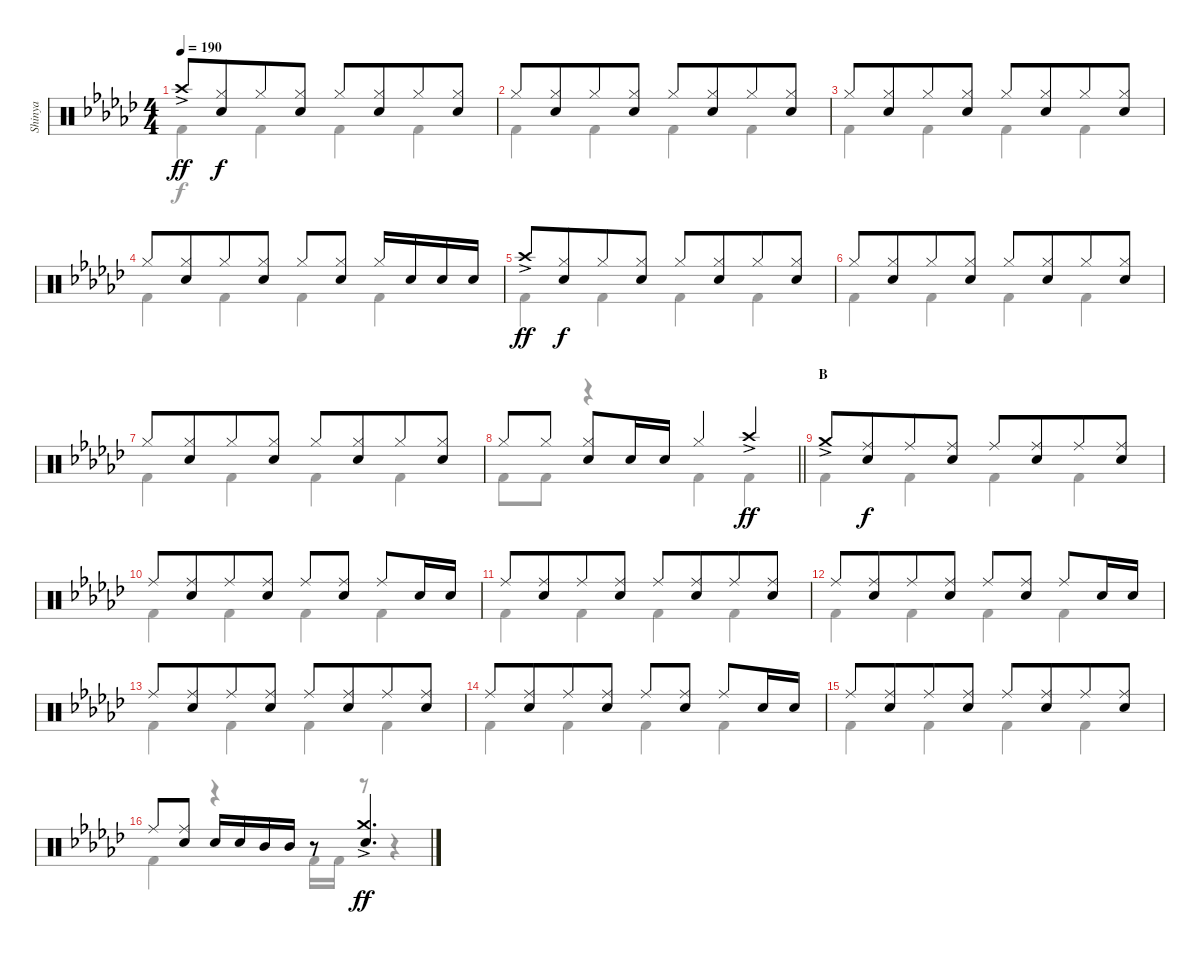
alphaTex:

\track ("Shinya" "Shinya") {instrument percussion}
\staff {score}
\articulation defaults
\voice
\ts (4 4)
\tempo 190
\clef neutral
\ks ebminor "Crash high (hit)"{ac}.8{dy ff}
("Hi-Hat (closed)" "Snare (hit) 2").8{dy f beam merge} "Hi-Hat (closed)".8 ("Hi-Hat (closed)" "Snare (hit) 2").8 "Hi-Hat (closed)".8 ("Hi-Hat (closed)" "Snare (hit) 2").8{beam merge} "Hi-Hat (closed)".8 ("Hi-Hat (closed)" "Snare (hit) 2").8 |
"Hi-Hat (closed)".8 ("Hi-Hat (closed)" "Snare (hit) 2").8{beam merge} "Hi-Hat (closed)".8 ("Hi-Hat (closed)" "Snare (hit) 2").8 "Hi-Hat (closed)".8 ("Hi-Hat (closed)" "Snare (hit) 2").8{beam merge} "Hi-Hat (closed)".8 ("Hi-Hat (closed)" "Snare (hit) 2").8 |
"Hi-Hat (closed)".8 ("Hi-Hat (closed)" "Snare (hit) 2").8{beam merge} "Hi-Hat (closed)".8 ("Hi-Hat (closed)" "Snare (hit) 2").8 "Hi-Hat (closed)".8 ("Hi-Hat (closed)" "Snare (hit) 2").8{beam merge} "Hi-Hat (closed)".8 ("Hi-Hat (closed)" "Snare (hit) 2").8 |
"Hi-Hat (closed)".8 ("Hi-Hat (closed)" "Snare (hit) 2").8{beam merge} "Hi-Hat (closed)".8 ("Hi-Hat (closed)" "Snare (hit) 2").8 "Hi-Hat (closed)".8 ("Hi-Hat (closed)" "Snare (hit) 2").8 "Hi-Hat (closed)".16 "Snare (hit) 2".16 "Snare (hit) 2".16 "Snare (hit) 2".16 |
"Crash high (hit)"{ac}.8{dy ff} ("Hi-Hat (closed)" "Snare (hit) 2").8{dy f beam merge} "Hi-Hat (closed)".8 ("Hi-Hat (closed)" "Snare (hit) 2").8 "Hi-Hat (closed)".8 ("Hi-Hat (closed)" "Snare (hit) 2").8{beam merge} "Hi-Hat (closed)".8 ("Hi-Hat (closed)" "Snare (hit) 2").8 |
"Hi-Hat (closed)".8 ("Hi-Hat (closed)" "Snare (hit) 2").8{beam merge} "Hi-Hat (closed)".8 ("Hi-Hat (closed)" "Snare (hit) 2").8 "Hi-Hat (closed)".8 ("Hi-Hat (closed)" "Snare (hit) 2").8{beam merge} "Hi-Hat (closed)".8 ("Hi-Hat (closed)" "Snare (hit) 2").8 |
"Hi-Hat (closed)".8 ("Hi-Hat (closed)" "Snare (hit) 2").8{beam merge} "Hi-Hat (closed)".8 ("Hi-Hat (closed)" "Snare (hit) 2").8 "Hi-Hat (closed)".8 ("Hi-Hat (closed)" "Snare (hit) 2").8{beam merge} "Hi-Hat (closed)".8 ("Hi-Hat (closed)" "Snare (hit) 2").8 |
\barLineRight lightlight "Hi-Hat (closed)".8 "Hi-Hat (closed)".8
("Hi-Hat (closed)" "Snare (hit) 2").8 "Snare (hit) 2".16 "Snare (hit) 2".16 "Hi-Hat (closed)".4 "Crash high (hit)"{ac}.4{dy ff} |
\section ("" "B")
"Crash medium (hit)"{ac}.8 ("Ride (middle)" "Snare (hit) 2").8{dy f beam merge} "Ride (middle)".8 ("Ride (middle)" "Snare (hit) 2").8 "Ride (middle)".8 ("Ride (middle)" "Snare (hit) 2").8{beam merge} "Ride (middle)".8 ("Ride (middle)" "Snare (hit) 2").8 |
"Ride (middle)".8 ("Ride (middle)" "Snare (hit) 2").8{beam merge} "Ride (middle)".8 ("Ride (middle)" "Snare (hit) 2").8 "Ride (middle)".8 ("Ride (middle)" "Snare (hit) 2").8{beam split} "Ride (middle)".8 "Snare (hit) 2".16 "Snare (hit) 2".16 |
"Ride (middle)".8 ("Ride (middle)" "Snare (hit) 2").8{beam merge} "Ride (middle)".8 ("Ride (middle)" "Snare (hit) 2").8 "Ride (middle)".8 ("Ride (middle)" "Snare (hit) 2").8{beam merge} "Ride (middle)".8 ("Ride (middle)" "Snare (hit) 2").8 |
"Ride (middle)".8 ("Ride (middle)" "Snare (hit) 2").8{beam merge} "Ride (middle)".8 ("Ride (middle)" "Snare (hit) 2").8 "Ride (middle)".8 ("Ride (middle)" "Snare (hit) 2").8{beam split} "Ride (middle)".8 "Snare (hit) 2".16 "Snare (hit) 2".16 |
"Ride (middle)".8 ("Ride (middle)" "Snare (hit) 2").8{beam merge} "Ride (middle)".8 ("Ride (middle)" "Snare (hit) 2").8 "Ride (middle)".8 ("Ride (middle)" "Snare (hit) 2").8{beam merge} "Ride (middle)".8 ("Ride (middle)" "Snare (hit) 2").8 |
"Ride (middle)".8 ("Ride (middle)" "Snare (hit) 2").8{beam merge} "Ride (middle)".8 ("Ride (middle)" "Snare (hit) 2").8 "Ride (middle)".8 ("Ride (middle)" "Snare (hit) 2").8{beam split} "Ride (middle)".8 "Snare (hit) 2".16 "Snare (hit) 2".16 |
"Ride (middle)".8 ("Ride (middle)" "Snare (hit) 2").8{beam merge} "Ride (middle)".8 ("Ride (middle)" "Snare (hit) 2").8 "Ride (middle)".8 ("Ride (middle)" "Snare (hit) 2").8{beam merge} "Ride (middle)".8 ("Ride (middle)" "Snare (hit) 2").8 |
"Ride (middle)".8 ("Ride (middle)" "Snare (hit) 2").8 "Snare (hit) 2".16 "Snare (hit) 2".16 "Mid Tom (hit)".16 "Mid Tom (hit)".16 r.8 ("Crash medium (hit)"{ac} "Snare (hit) 2").4{d dy ff}
\voice
\clef neutral
\ottava regular
\simile none
\ks ebminor "Kick (hit) 2".4{dy f} "Kick (hit) 2".4 "Kick (hit) 2".4 "Kick (hit) 2".4
|
"Kick (hit) 2".4 "Kick (hit) 2".4 "Kick (hit) 2".4 "Kick (hit) 2".4 |
"Kick (hit) 2".4 "Kick (hit) 2".4 "Kick (hit) 2".4 "Kick (hit) 2".4 |
"Kick (hit) 2".4 "Kick (hit) 2".4 "Kick (hit) 2".4 "Kick (hit) 2".4 |
"Kick (hit) 2".4 "Kick (hit) 2".4 "Kick (hit) 2".4 "Kick (hit) 2".4 |
"Kick (hit) 2".4 "Kick (hit) 2".4 "Kick (hit) 2".4 "Kick (hit) 2".4 |
"Kick (hit) 2".4 "Kick (hit) 2".4 "Kick (hit) 2".4 "Kick (hit) 2".4 |
\barLineRight lightlight "Kick (hit) 2".8 "Kick (hit) 2".8
r.4 "Kick (hit) 2".4 "Kick (hit) 2".4 |
"Kick (hit) 2".4 "Kick (hit) 2".4 "Kick (hit) 2".4 "Kick (hit) 2".4 |
"Kick (hit) 2".4 "Kick (hit) 2".4 "Kick (hit) 2".4 "Kick (hit) 2".4 |
"Kick (hit) 2".4 "Kick (hit) 2".4 "Kick (hit) 2".4 "Kick (hit) 2".4 |
"Kick (hit) 2".4 "Kick (hit) 2".4 "Kick (hit) 2".4 "Kick (hit) 2".4 |
"Kick (hit) 2".4 "Kick (hit) 2".4 "Kick (hit) 2".4 "Kick (hit) 2".4 |
"Kick (hit) 2".4 "Kick (hit) 2".4 "Kick (hit) 2".4 "Kick (hit) 2".4 |
"Kick (hit) 2".4 "Kick (hit) 2".4 "Kick (hit) 2".4 "Kick (hit) 2".4 |
"Kick (hit) 2".4 r.4 "Kick (hit) 2".16 "Kick (hit) 2".16 r.8 r.4
